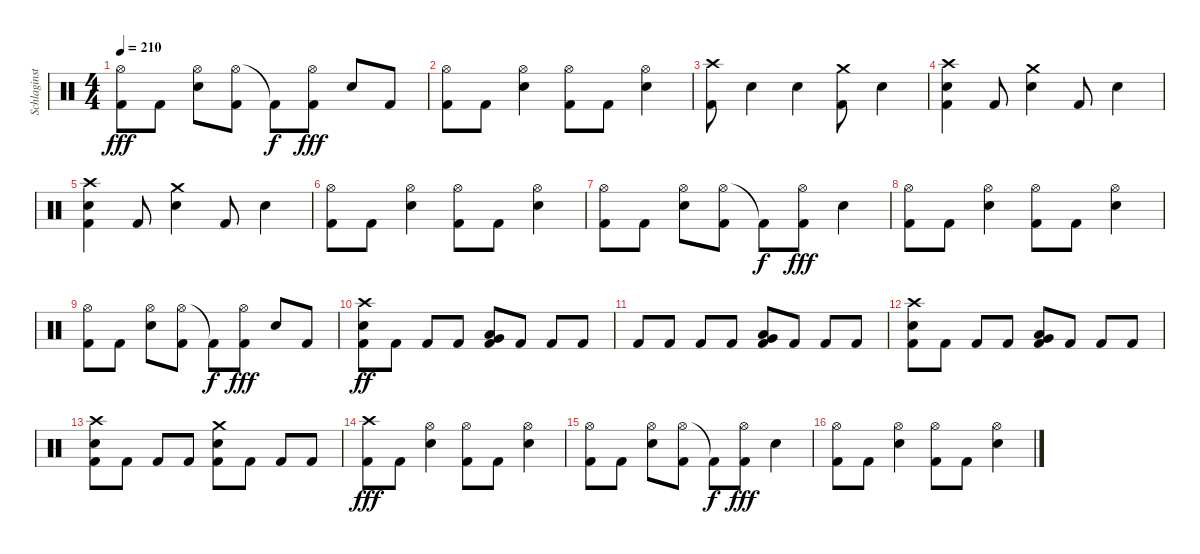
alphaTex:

\track ("Schlaginstrumente - Auswahl" "Schlaginst") {instrument percussion}
\staff {score}
\articulation defaults
\ts (4 4)
\tempo 210
\clef neutral
\ks c
("Hi-Hat (open)" "Kick (hit) 2").8{dy fff} "Kick (hit) 2".8 ("Hi-Hat (open)" "Electric Snare (hit)").8 ("Hi-Hat (open)" "Kick (hit) 2").8 "Kick (hit) 2"{t}.8{dy f} ("Hi-Hat (open)" "Kick (hit) 2").8{dy fff} "Electric Snare (hit)".8 "Kick (hit) 2".8 |
("Hi-Hat (open)" "Kick (hit) 2").8 "Kick (hit) 2".8 ("Hi-Hat (open)" "Electric Snare (hit)").4 ("Hi-Hat (open)" "Kick (hit) 2").8 "Kick (hit) 2".8 ("Hi-Hat (open)" "Electric Snare (hit)").4 |
("Crash high (hit)" "Kick (hit) 2").8 "Electric Snare (hit)".4 "Electric Snare (hit)".4 ("Crash medium (hit)" "Kick (hit) 2").8 "Electric Snare (hit)".4 |
("Crash high (hit)" "Electric Snare (hit)" "Kick (hit) 2").4 "Kick (hit) 2".8 ("Crash medium (hit)" "Electric Snare (hit)").4 "Kick (hit) 2".8 "Electric Snare (hit)".4 |
("Crash high (hit)" "Electric Snare (hit)" "Kick (hit) 2").4 "Kick (hit) 2".8 ("Crash medium (hit)" "Electric Snare (hit)").4 "Kick (hit) 2".8 "Electric Snare (hit)".4 |
("Hi-Hat (open)" "Kick (hit) 2").8 "Kick (hit) 2".8 ("Hi-Hat (open)" "Electric Snare (hit)").4 ("Hi-Hat (open)" "Kick (hit) 2").8 "Kick (hit) 2".8 ("Hi-Hat (open)" "Electric Snare (hit)").4 |
("Hi-Hat (open)" "Kick (hit) 2").8 "Kick (hit) 2".8 ("Hi-Hat (open)" "Electric Snare (hit)").8 ("Hi-Hat (open)" "Kick (hit) 2").8 "Kick (hit) 2"{t}.8{dy f} ("Hi-Hat (open)" "Kick (hit) 2").8{dy fff} "Electric Snare (hit)".4 |
("Hi-Hat (open)" "Kick (hit) 2").8 "Kick (hit) 2".8 ("Hi-Hat (open)" "Electric Snare (hit)").4 ("Hi-Hat (open)" "Kick (hit) 2").8 "Kick (hit) 2".8 ("Hi-Hat (open)" "Electric Snare (hit)").4 |
("Hi-Hat (open)" "Kick (hit) 2").8 "Kick (hit) 2".8 ("Hi-Hat (open)" "Electric Snare (hit)").8 ("Hi-Hat (open)" "Kick (hit) 2").8 "Kick (hit) 2"{t}.8{dy f} ("Hi-Hat (open)" "Kick (hit) 2").8{dy fff} "Electric Snare (hit)".8 "Kick (hit) 2".8 |
("Crash high (hit)" "Electric Snare (hit)" "Kick (hit) 2").8{dy ff} "Kick (hit) 2".8 "Kick (hit) 2".8 "Kick (hit) 2".8 ("Very Low Tom (hit)" "Low Tom (hit)" "Kick (hit) 2").8 "Kick (hit) 2".8 "Kick (hit) 2".8 "Kick (hit) 2".8 |
"Kick (hit) 2".8 "Kick (hit) 2".8 "Kick (hit) 2".8 "Kick (hit) 2".8 ("Very Low Tom (hit)" "Low Tom (hit)" "Kick (hit) 2").8 "Kick (hit) 2".8 "Kick (hit) 2".8 "Kick (hit) 2".8 |
("Crash high (hit)" "Electric Snare (hit)" "Kick (hit) 2").8 "Kick (hit) 2".8 "Kick (hit) 2".8 "Kick (hit) 2".8 ("Very Low Tom (hit)" "Low Tom (hit)" "Kick (hit) 2").8 "Kick (hit) 2".8 "Kick (hit) 2".8 "Kick (hit) 2".8 |
("Crash high (hit)" "Electric Snare (hit)" "Kick (hit) 2").8 "Kick (hit) 2".8 "Kick (hit) 2".8 "Kick (hit) 2".8 ("Crash medium (hit)" "Electric Snare (hit)" "Kick (hit) 2").8 "Kick (hit) 2".8 "Kick (hit) 2".8 "Kick (hit) 2".8 |
("Crash high (hit)" "Kick (hit) 2").8{dy fff} "Kick (hit) 2".8 ("Hi-Hat (open)" "Electric Snare (hit)").4 ("Hi-Hat (open)" "Kick (hit) 2").8 "Kick (hit) 2".8 ("Hi-Hat (open)" "Electric Snare (hit)").4 |
("Hi-Hat (open)" "Kick (hit) 2").8 "Kick (hit) 2".8 ("Hi-Hat (open)" "Electric Snare (hit)").8 ("Hi-Hat (open)" "Kick (hit) 2").8 "Kick (hit) 2"{t}.8{dy f} ("Hi-Hat (open)" "Kick (hit) 2").8{dy fff} "Electric Snare (hit)".4 |
("Hi-Hat (open)" "Kick (hit) 2").8 "Kick (hit) 2".8 ("Hi-Hat (open)" "Electric Snare (hit)").4 ("Hi-Hat (open)" "Kick (hit) 2").8 "Kick (hit) 2".8 ("Hi-Hat (open)" "Electric Snare (hit)").4
